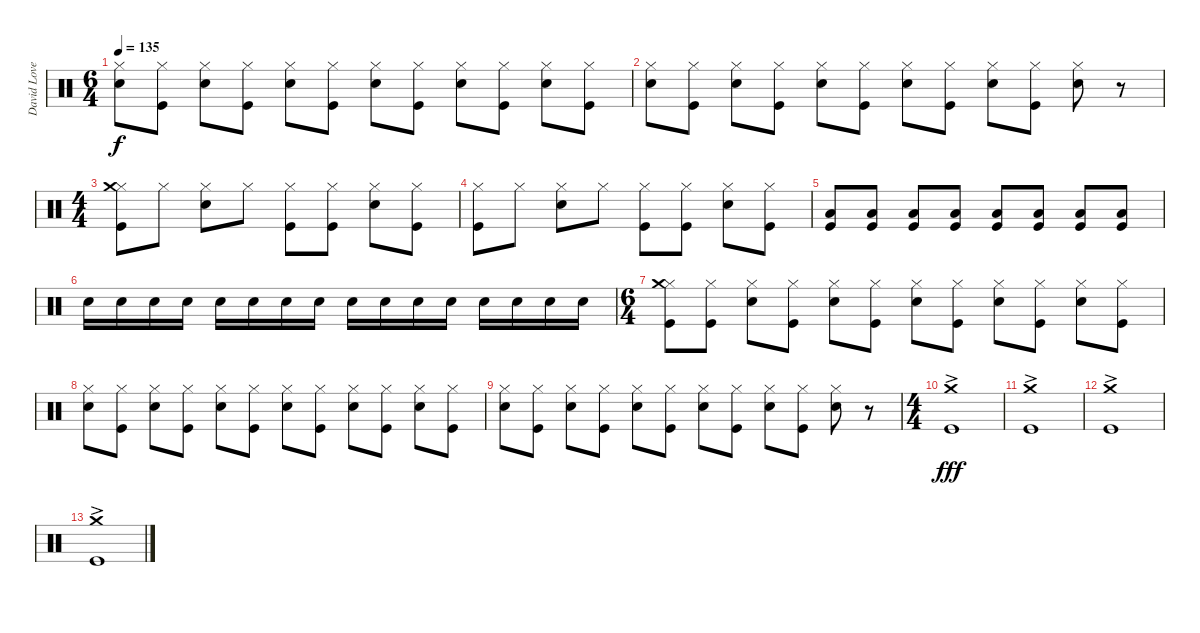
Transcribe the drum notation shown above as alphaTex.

\track ("David Lovering" "David Love") {instrument percussion}
\staff {score}
\articulation defaults
\ts (6 4)
\tempo 135
\clef neutral
\ks c
("Hi-Hat (closed)" "Snare (hit) 2").8{dy f} ("Hi-Hat (closed)" "Kick (hit)").8 ("Hi-Hat (closed)" "Snare (hit) 2").8 ("Hi-Hat (closed)" "Kick (hit)").8 ("Hi-Hat (closed)" "Snare (hit) 2").8 ("Hi-Hat (closed)" "Kick (hit)").8 ("Hi-Hat (closed)" "Snare (hit) 2").8 ("Hi-Hat (closed)" "Kick (hit)").8 ("Hi-Hat (closed)" "Snare (hit) 2").8 ("Hi-Hat (closed)" "Kick (hit)").8 ("Hi-Hat (closed)" "Snare (hit) 2").8 ("Hi-Hat (closed)" "Kick (hit)").8 |
("Hi-Hat (closed)" "Snare (hit) 2").8 ("Hi-Hat (closed)" "Kick (hit)").8 ("Hi-Hat (closed)" "Snare (hit) 2").8 ("Hi-Hat (closed)" "Kick (hit)").8 ("Hi-Hat (closed)" "Snare (hit) 2").8 ("Hi-Hat (closed)" "Kick (hit)").8 ("Hi-Hat (closed)" "Snare (hit) 2").8 ("Hi-Hat (closed)" "Kick (hit)").8 ("Hi-Hat (closed)" "Snare (hit) 2").8 ("Hi-Hat (closed)" "Kick (hit)").8 ("Hi-Hat (closed)" "Snare (hit) 2").8 r.8 |
\ts (4 4)
("Hi-Hat (closed)" "Crash medium (hit)" "Kick (hit)").8 "Hi-Hat (closed)".8 ("Hi-Hat (closed)" "Snare (hit) 2").8 "Hi-Hat (closed)".8 ("Hi-Hat (closed)" "Kick (hit)").8 ("Hi-Hat (closed)" "Kick (hit)").8 ("Hi-Hat (closed)" "Snare (hit) 2").8 ("Hi-Hat (closed)" "Kick (hit)").8 |
("Hi-Hat (closed)" "Kick (hit)").8 "Hi-Hat (closed)".8 ("Hi-Hat (closed)" "Snare (hit) 2").8 "Hi-Hat (closed)".8 ("Hi-Hat (closed)" "Kick (hit)").8 ("Hi-Hat (closed)" "Kick (hit)").8 ("Hi-Hat (closed)" "Snare (hit) 2").8 ("Hi-Hat (closed)" "Kick (hit)").8 |
("Low Floor Tom (hit)" "Kick (hit)").8 ("Low Floor Tom (hit)" "Kick (hit)").8 ("Low Floor Tom (hit)" "Kick (hit)").8 ("Low Floor Tom (hit)" "Kick (hit)").8 ("Low Floor Tom (hit)" "Kick (hit)").8 ("Low Floor Tom (hit)" "Kick (hit)").8 ("Low Floor Tom (hit)" "Kick (hit)").8 ("Low Floor Tom (hit)" "Kick (hit)").8 |
"Snare (hit) 2".16 "Snare (hit) 2".16 "Snare (hit) 2".16 "Snare (hit) 2".16 "Snare (hit) 2".16 "Snare (hit) 2".16 "Snare (hit) 2".16 "Snare (hit) 2".16 "Snare (hit) 2".16 "Snare (hit) 2".16 "Snare (hit) 2".16 "Snare (hit) 2".16 "Snare (hit) 2".16 "Snare (hit) 2".16 "Snare (hit) 2".16 "Snare (hit) 2".16 |
\ts (6 4)
("Hi-Hat (closed)" "Crash medium (hit)" "Kick (hit)").8 ("Hi-Hat (closed)" "Kick (hit)").8 ("Hi-Hat (closed)" "Snare (hit) 2").8 ("Hi-Hat (closed)" "Kick (hit)").8 ("Hi-Hat (closed)" "Snare (hit) 2").8 ("Hi-Hat (closed)" "Kick (hit)").8 ("Hi-Hat (closed)" "Snare (hit) 2").8 ("Hi-Hat (closed)" "Kick (hit)").8 ("Hi-Hat (closed)" "Snare (hit) 2").8 ("Hi-Hat (closed)" "Kick (hit)").8 ("Hi-Hat (closed)" "Snare (hit) 2").8 ("Hi-Hat (closed)" "Kick (hit)").8 |
("Hi-Hat (closed)" "Snare (hit) 2").8 ("Hi-Hat (closed)" "Kick (hit)").8 ("Hi-Hat (closed)" "Snare (hit) 2").8 ("Hi-Hat (closed)" "Kick (hit)").8 ("Hi-Hat (closed)" "Snare (hit) 2").8 ("Hi-Hat (closed)" "Kick (hit)").8 ("Hi-Hat (closed)" "Snare (hit) 2").8 ("Hi-Hat (closed)" "Kick (hit)").8 ("Hi-Hat (closed)" "Snare (hit) 2").8 ("Hi-Hat (closed)" "Kick (hit)").8 ("Hi-Hat (closed)" "Snare (hit) 2").8 ("Hi-Hat (closed)" "Kick (hit)").8 |
("Hi-Hat (closed)" "Snare (hit) 2").8 ("Hi-Hat (closed)" "Kick (hit)").8 ("Hi-Hat (closed)" "Snare (hit) 2").8 ("Hi-Hat (closed)" "Kick (hit)").8 ("Hi-Hat (closed)" "Snare (hit) 2").8 ("Hi-Hat (closed)" "Kick (hit)").8 ("Hi-Hat (closed)" "Snare (hit) 2").8 ("Hi-Hat (closed)" "Kick (hit)").8 ("Hi-Hat (closed)" "Snare (hit) 2").8 ("Hi-Hat (closed)" "Kick (hit)").8 ("Hi-Hat (closed)" "Snare (hit) 2").8 r.8 |
\ts (4 4)
("Crash medium (hit)"{ac} "Kick (hit)").1{dy fff} |
("Crash medium (hit)"{ac} "Kick (hit)").1 |
("Crash medium (hit)"{ac} "Kick (hit)").1 |
("Crash medium (hit)"{ac} "Kick (hit)").1
